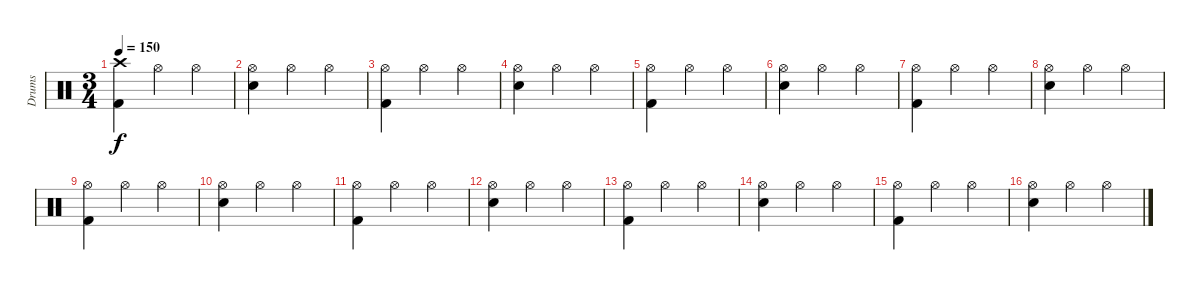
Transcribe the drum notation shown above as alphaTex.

\track ("Drums" "Drums") {instrument percussion}
\staff {score}
\articulation defaults
\ts (3 4)
\tempo 150
\clef neutral
\ks c
("Crash high (hit)" "Kick (hit) 2").4{dy f} "Hi-Hat (open)".4 "Hi-Hat (open)".4 |
("Hi-Hat (open)" "Snare (hit) 2").4 "Hi-Hat (open)".4 "Hi-Hat (open)".4 |
("Hi-Hat (open)" "Kick (hit) 2").4 "Hi-Hat (open)".4 "Hi-Hat (open)".4 |
("Hi-Hat (open)" "Snare (hit) 2").4 "Hi-Hat (open)".4 "Hi-Hat (open)".4 |
("Hi-Hat (open)" "Kick (hit) 2").4 "Hi-Hat (open)".4 "Hi-Hat (open)".4 |
("Hi-Hat (open)" "Snare (hit) 2").4 "Hi-Hat (open)".4 "Hi-Hat (open)".4 |
("Hi-Hat (open)" "Kick (hit) 2").4 "Hi-Hat (open)".4 "Hi-Hat (open)".4 |
("Hi-Hat (open)" "Snare (hit) 2").4 "Hi-Hat (open)".4 "Hi-Hat (open)".4 |
("Hi-Hat (open)" "Kick (hit) 2").4 "Hi-Hat (open)".4 "Hi-Hat (open)".4 |
("Hi-Hat (open)" "Snare (hit) 2").4 "Hi-Hat (open)".4 "Hi-Hat (open)".4 |
("Hi-Hat (open)" "Kick (hit) 2").4 "Hi-Hat (open)".4 "Hi-Hat (open)".4 |
("Hi-Hat (open)" "Snare (hit) 2").4 "Hi-Hat (open)".4 "Hi-Hat (open)".4 |
("Hi-Hat (open)" "Kick (hit) 2").4 "Hi-Hat (open)".4 "Hi-Hat (open)".4 |
("Hi-Hat (open)" "Snare (hit) 2").4 "Hi-Hat (open)".4 "Hi-Hat (open)".4 |
("Hi-Hat (open)" "Kick (hit) 2").4 "Hi-Hat (open)".4 "Hi-Hat (open)".4 |
("Hi-Hat (open)" "Snare (hit) 2").4 "Hi-Hat (open)".4 "Hi-Hat (open)".4
